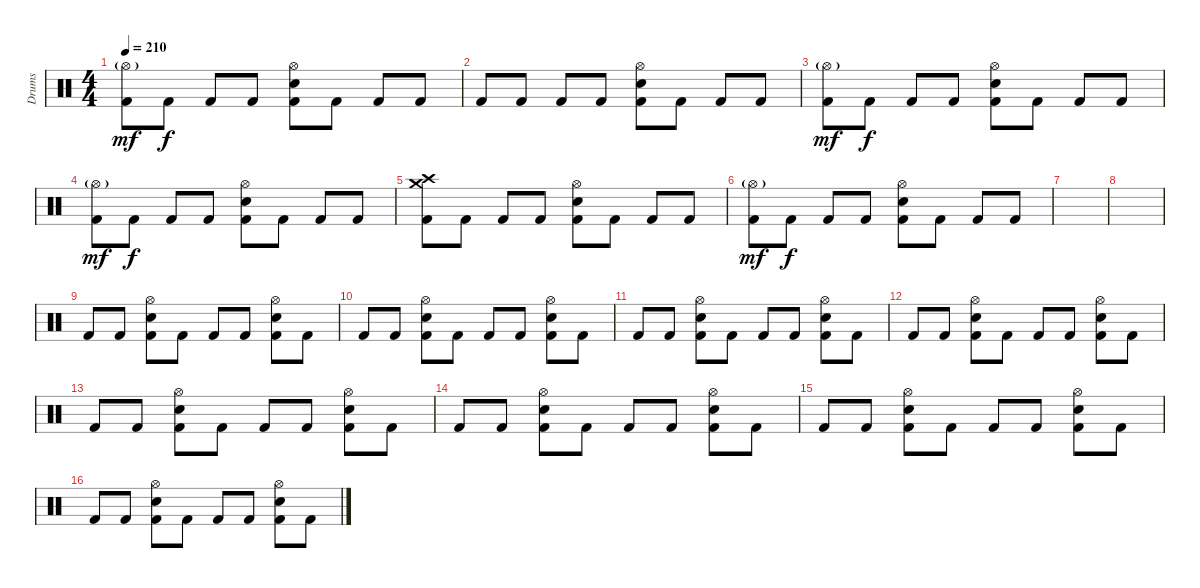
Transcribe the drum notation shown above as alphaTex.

\track ("Drums" "Drums") {instrument percussion}
\staff {score}
\articulation defaults
\ts (4 4)
\tempo 210
\clef neutral
\ks c
("Hi-Hat (open)"{g} "Kick (hit) 2").8{dy mf} "Kick (hit) 2".8{dy f} "Kick (hit) 2".8 "Kick (hit) 2".8 ("Hi-Hat (open)" "Electric Snare (hit)" "Kick (hit) 2").8 "Kick (hit) 2".8 "Kick (hit) 2".8 "Kick (hit) 2".8 |
"Kick (hit) 2".8 "Kick (hit) 2".8 "Kick (hit) 2".8 "Kick (hit) 2".8 ("Hi-Hat (open)" "Electric Snare (hit)" "Kick (hit) 2").8 "Kick (hit) 2".8 "Kick (hit) 2".8 "Kick (hit) 2".8 |
("Hi-Hat (open)"{g} "Kick (hit) 2").8{dy mf} "Kick (hit) 2".8{dy f} "Kick (hit) 2".8 "Kick (hit) 2".8 ("Hi-Hat (open)" "Electric Snare (hit)" "Kick (hit) 2").8 "Kick (hit) 2".8 "Kick (hit) 2".8 "Kick (hit) 2".8 |
("Hi-Hat (open)"{g} "Kick (hit) 2").8{dy mf} "Kick (hit) 2".8{dy f} "Kick (hit) 2".8 "Kick (hit) 2".8 ("Hi-Hat (open)" "Electric Snare (hit)" "Kick (hit) 2").8 "Kick (hit) 2".8 "Kick (hit) 2".8 "Kick (hit) 2".8 |
("Crash high (hit)" "Crash medium (hit)" "Kick (hit) 2").8 "Kick (hit) 2".8 "Kick (hit) 2".8 "Kick (hit) 2".8 ("Hi-Hat (open)" "Electric Snare (hit)" "Kick (hit) 2").8 "Kick (hit) 2".8 "Kick (hit) 2".8 "Kick (hit) 2".8 |
("Hi-Hat (open)"{g} "Kick (hit) 2").8{dy mf} "Kick (hit) 2".8{dy f} "Kick (hit) 2".8 "Kick (hit) 2".8 ("Hi-Hat (open)" "Electric Snare (hit)" "Kick (hit) 2").8 "Kick (hit) 2".8 "Kick (hit) 2".8 "Kick (hit) 2".8 |
|
|
"Kick (hit) 2".8 "Kick (hit) 2".8 ("Hi-Hat (open)" "Electric Snare (hit)" "Kick (hit) 2").8 "Kick (hit) 2".8 "Kick (hit) 2".8 "Kick (hit) 2".8 ("Hi-Hat (open)" "Electric Snare (hit)" "Kick (hit) 2").8 "Kick (hit) 2".8 |
"Kick (hit) 2".8 "Kick (hit) 2".8 ("Hi-Hat (open)" "Electric Snare (hit)" "Kick (hit) 2").8 "Kick (hit) 2".8 "Kick (hit) 2".8 "Kick (hit) 2".8 ("Hi-Hat (open)" "Electric Snare (hit)" "Kick (hit) 2").8 "Kick (hit) 2".8 |
"Kick (hit) 2".8 "Kick (hit) 2".8 ("Hi-Hat (open)" "Electric Snare (hit)" "Kick (hit) 2").8 "Kick (hit) 2".8 "Kick (hit) 2".8 "Kick (hit) 2".8 ("Hi-Hat (open)" "Electric Snare (hit)" "Kick (hit) 2").8 "Kick (hit) 2".8 |
"Kick (hit) 2".8 "Kick (hit) 2".8 ("Hi-Hat (open)" "Electric Snare (hit)" "Kick (hit) 2").8 "Kick (hit) 2".8 "Kick (hit) 2".8 "Kick (hit) 2".8 ("Hi-Hat (open)" "Electric Snare (hit)" "Kick (hit) 2").8 "Kick (hit) 2".8 |
"Kick (hit) 2".8 "Kick (hit) 2".8 ("Hi-Hat (open)" "Electric Snare (hit)" "Kick (hit) 2").8 "Kick (hit) 2".8 "Kick (hit) 2".8 "Kick (hit) 2".8 ("Hi-Hat (open)" "Electric Snare (hit)" "Kick (hit) 2").8 "Kick (hit) 2".8 |
"Kick (hit) 2".8 "Kick (hit) 2".8 ("Hi-Hat (open)" "Electric Snare (hit)" "Kick (hit) 2").8 "Kick (hit) 2".8 "Kick (hit) 2".8 "Kick (hit) 2".8 ("Hi-Hat (open)" "Electric Snare (hit)" "Kick (hit) 2").8 "Kick (hit) 2".8 |
"Kick (hit) 2".8 "Kick (hit) 2".8 ("Hi-Hat (open)" "Electric Snare (hit)" "Kick (hit) 2").8 "Kick (hit) 2".8 "Kick (hit) 2".8 "Kick (hit) 2".8 ("Hi-Hat (open)" "Electric Snare (hit)" "Kick (hit) 2").8 "Kick (hit) 2".8 |
"Kick (hit) 2".8 "Kick (hit) 2".8 ("Hi-Hat (open)" "Electric Snare (hit)" "Kick (hit) 2").8 "Kick (hit) 2".8 "Kick (hit) 2".8 "Kick (hit) 2".8 ("Hi-Hat (open)" "Electric Snare (hit)" "Kick (hit) 2").8 "Kick (hit) 2".8
